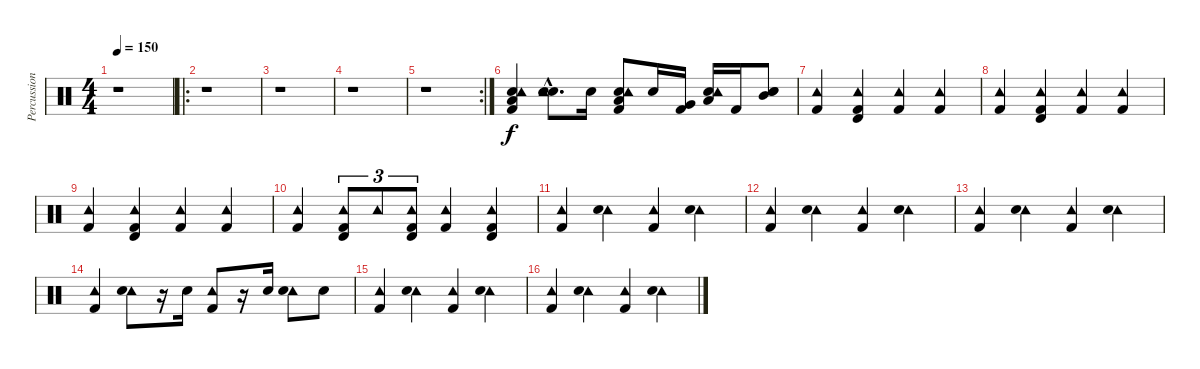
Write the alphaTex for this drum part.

\track ("Percussion" "Percussion") {instrument percussion}
\staff {score}
\articulation defaults
\ts (4 4)
\tempo 150
\clef neutral
\ks c
r.1{dy f} |
\ro
r.1 |
r.1 |
r.1 |
\rc 2
r.1 |
("Low Tom (hit)" "Hand Clap (hit)" "Tambourine (hit)" "Kick (hit) 2").4 ("Hand Clap (hit)"{hac} "Tambourine (hit)"{hac} "Snare (hit) 2"{hac}).8{d} "Snare (hit) 2".16 ("Low Tom (hit)" "Hand Clap (hit)" "Tambourine (hit)" "Kick (hit) 2").8 "Snare (hit) 2".16 ("Very Low Tom (hit)" "Kick (hit) 2").16 ("Low Floor Tom (hit)" "Hand Clap (hit)" "Tambourine (hit)").16 "Kick (hit) 2".16 ("Mid Tom (hit)" "Hand Clap (hit)" "Snare (hit) 2").8 |
("Tambourine (hit)" "Kick (hit) 2").4 ("Timbale high (hit)" "Tambourine (hit)" "Kick (hit) 2").4 ("Tambourine (hit)" "Kick (hit) 2").4 ("Tambourine (hit)" "Kick (hit) 2").4 |
("Tambourine (hit)" "Kick (hit) 2").4 ("Timbale high (hit)" "Tambourine (hit)" "Kick (hit) 2").4 ("Tambourine (hit)" "Kick (hit) 2").4 ("Tambourine (hit)" "Kick (hit) 2").4 |
("Tambourine (hit)" "Kick (hit) 2").4 ("Timbale high (hit)" "Tambourine (hit)" "Kick (hit) 2").4 ("Tambourine (hit)" "Kick (hit) 2").4 ("Tambourine (hit)" "Kick (hit) 2").4 |
("Tambourine (hit)" "Kick (hit) 2").4 ("Timbale high (hit)" "Tambourine (hit)" "Kick (hit) 2").8{tu (3 2)} "Tambourine (hit)".8{tu (3 2)} ("Timbale high (hit)" "Tambourine (hit)" "Kick (hit) 2").8{tu (3 2)} ("Tambourine (hit)" "Kick (hit) 2").4 ("Timbale high (hit)" "Tambourine (hit)" "Kick (hit) 2").4 |
("Tambourine (hit)" "Kick (hit) 2").4 ("Tambourine (hit)" "Snare (hit) 2").4 ("Tambourine (hit)" "Kick (hit) 2").4 ("Tambourine (hit)" "Snare (hit) 2").4 |
("Tambourine (hit)" "Kick (hit) 2").4 ("Tambourine (hit)" "Snare (hit) 2").4 ("Tambourine (hit)" "Kick (hit) 2").4 ("Tambourine (hit)" "Snare (hit) 2").4 |
("Tambourine (hit)" "Kick (hit) 2").4 ("Tambourine (hit)" "Snare (hit) 2").4 ("Tambourine (hit)" "Kick (hit) 2").4 ("Tambourine (hit)" "Snare (hit) 2").4 |
("Tambourine (hit)" "Kick (hit) 2").4 ("Tambourine (hit)" "Snare (hit) 2").8 r.16 "Snare (hit) 2".16 ("Tambourine (hit)" "Kick (hit) 2").8 r.16 "Snare (hit) 2".16 ("Tambourine (hit)" "Snare (hit) 2").8 "Snare (hit) 2".8 |
("Tambourine (hit)" "Kick (hit) 2").4 ("Tambourine (hit)" "Snare (hit) 2").4 ("Tambourine (hit)" "Kick (hit) 2").4 ("Tambourine (hit)" "Snare (hit) 2").4 |
("Tambourine (hit)" "Kick (hit) 2").4 ("Tambourine (hit)" "Snare (hit) 2").4 ("Tambourine (hit)" "Kick (hit) 2").4 ("Tambourine (hit)" "Snare (hit) 2").4
